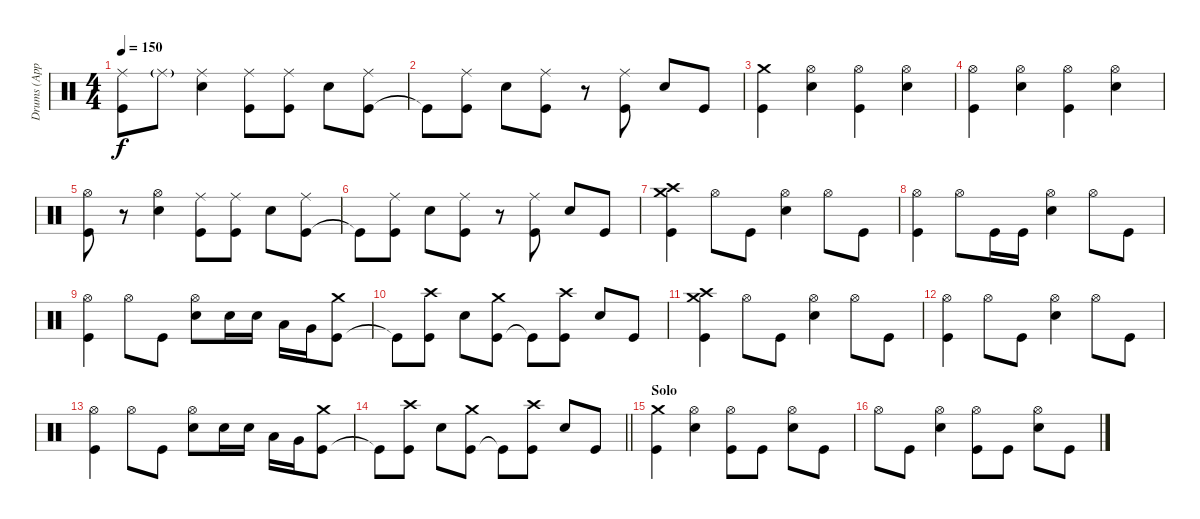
\track ("Drums (Appelhans/Durst)" "Drums (App") {instrument percussion}
\staff {score}
\articulation defaults
\ts (4 4)
\tempo 150
\clef neutral
\ks c
("Kick (hit)" "Ride (middle)").8{dy f} "Ride (middle)"{g}.8 ("Snare (hit) 2" "Ride (middle)").4 ("Kick (hit)" "Ride (middle)").8 ("Kick (hit)" "Ride (middle)").8 "Snare (hit) 2".8 ("Kick (hit)" "Ride (middle)").8 |
"Kick (hit)"{t}.8 ("Kick (hit)" "Ride (middle)").8 "Snare (hit) 2".8 ("Kick (hit)" "Ride (middle)").8 r.8 ("Kick (hit)" "Ride (middle)").8 "Snare (hit) 2".8 "Kick (hit)".8 |
("Kick (hit)" "Crash medium (hit)").4 ("Snare (hit) 2" "Hi-Hat (open)").4 ("Kick (hit)" "Hi-Hat (open)").4 ("Snare (hit) 2" "Hi-Hat (open)").4 |
("Kick (hit)" "Hi-Hat (open)").4 ("Snare (hit) 2" "Hi-Hat (open)").4 ("Kick (hit)" "Hi-Hat (open)").4 ("Snare (hit) 2" "Hi-Hat (open)").4 |
("Kick (hit)" "Hi-Hat (open)").8 r.8 ("Snare (hit) 2" "Hi-Hat (open)").4 ("Kick (hit)" "Ride (middle)").8 ("Kick (hit)" "Ride (middle)").8 "Snare (hit) 2".8 ("Kick (hit)" "Ride (middle)").8 |
"Kick (hit)"{t}.8 ("Kick (hit)" "Ride (middle)").8 "Snare (hit) 2".8 ("Kick (hit)" "Ride (middle)").8 r.8 ("Kick (hit)" "Ride (middle)").8 "Snare (hit) 2".8 "Kick (hit)".8 |
("Kick (hit)" "Crash medium (hit)" "Crash high (hit)").4 "Hi-Hat (open)".8 "Kick (hit)".8 ("Hi-Hat (open)" "Snare (hit) 2").4 "Hi-Hat (open)".8 "Kick (hit)".8 |
("Kick (hit)" "Hi-Hat (open)").4 "Hi-Hat (open)".8 "Kick (hit)".16 "Kick (hit)".16 ("Hi-Hat (open)" "Snare (hit) 2").4 "Hi-Hat (open)".8 "Kick (hit)".8 |
("Kick (hit)" "Hi-Hat (open)").4 "Hi-Hat (open)".8 "Kick (hit)".8 ("Hi-Hat (open)" "Snare (hit) 2").8 "Snare (hit) 2".16 "Snare (hit) 2".16 "Low Tom (hit)".16 "Very Low Tom (hit)".16 ("Kick (hit)" "Crash medium (hit)").8 |
"Kick (hit)"{t}.8 ("Kick (hit)" "Crash high (hit)").8 "Snare (hit) 2".8 ("Kick (hit)" "Crash medium (hit)").8 "Kick (hit)"{t}.8 ("Kick (hit)" "Crash high (hit)").8 "Snare (hit) 2".8 "Kick (hit)".8 |
("Kick (hit)" "Crash medium (hit)" "Crash high (hit)").4 "Hi-Hat (open)".8 "Kick (hit)".8 ("Hi-Hat (open)" "Snare (hit) 2").4 "Hi-Hat (open)".8 "Kick (hit)".8 |
("Kick (hit)" "Hi-Hat (open)").4 "Hi-Hat (open)".8 "Kick (hit)".8 ("Hi-Hat (open)" "Snare (hit) 2").4 "Hi-Hat (open)".8 "Kick (hit)".8 |
("Kick (hit)" "Hi-Hat (open)").4 "Hi-Hat (open)".8 "Kick (hit)".8 ("Hi-Hat (open)" "Snare (hit) 2").8 "Snare (hit) 2".16 "Snare (hit) 2".16 "Low Tom (hit)".16 "Very Low Tom (hit)".16 ("Kick (hit)" "Crash medium (hit)").8 |
\barLineRight lightlight "Kick (hit)"{t}.8
("Kick (hit)" "Crash high (hit)").8 "Snare (hit) 2".8 ("Kick (hit)" "Crash medium (hit)").8 "Kick (hit)"{t}.8 ("Kick (hit)" "Crash high (hit)").8 "Snare (hit) 2".8 "Kick (hit)".8 |
\section ("" "Solo")
("Kick (hit)" "Crash medium (hit)").4 ("Snare (hit) 2" "Hi-Hat (open)").4 ("Kick (hit)" "Hi-Hat (open)").8 "Kick (hit)".8 ("Snare (hit) 2" "Hi-Hat (open)").8 "Kick (hit)".8 |
"Hi-Hat (open)".8 "Kick (hit)".8 ("Snare (hit) 2" "Hi-Hat (open)").4 ("Kick (hit)" "Hi-Hat (open)").8 "Kick (hit)".8 ("Snare (hit) 2" "Hi-Hat (open)").8 "Kick (hit)".8
